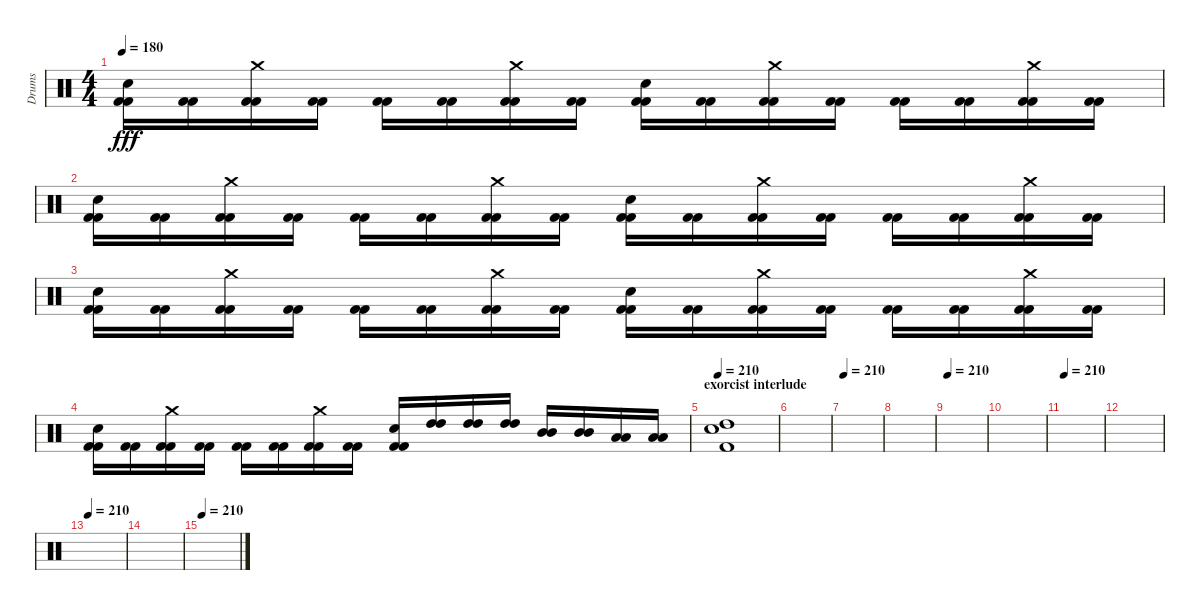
\track ("Drums" "Drums") {instrument percussion}
\staff {score}
\articulation defaults
\ts (4 4)
\tempo 180
\clef neutral
\ks c
("Electric Snare (hit)" "Kick (hit) 2" "Kick (hit) 2").16{dy fff} ("Kick (hit) 2" "Kick (hit) 2").16 ("Crash medium (hit)" "Kick (hit) 2" "Kick (hit) 2").16 ("Kick (hit) 2" "Kick (hit) 2").16 ("Kick (hit) 2" "Kick (hit) 2").16 ("Kick (hit) 2" "Kick (hit) 2").16 ("Crash medium (hit)" "Kick (hit) 2" "Kick (hit) 2").16 ("Kick (hit) 2" "Kick (hit) 2").16 ("Electric Snare (hit)" "Kick (hit) 2" "Kick (hit) 2").16 ("Kick (hit) 2" "Kick (hit) 2").16 ("Crash medium (hit)" "Kick (hit) 2" "Kick (hit) 2").16 ("Kick (hit) 2" "Kick (hit) 2").16 ("Kick (hit) 2" "Kick (hit) 2").16 ("Kick (hit) 2" "Kick (hit) 2").16 ("Crash medium (hit)" "Kick (hit) 2" "Kick (hit) 2").16 ("Kick (hit) 2" "Kick (hit) 2").16 |
("Electric Snare (hit)" "Kick (hit) 2" "Kick (hit) 2").16 ("Kick (hit) 2" "Kick (hit) 2").16 ("Crash medium (hit)" "Kick (hit) 2" "Kick (hit) 2").16 ("Kick (hit) 2" "Kick (hit) 2").16 ("Kick (hit) 2" "Kick (hit) 2").16 ("Kick (hit) 2" "Kick (hit) 2").16 ("Crash medium (hit)" "Kick (hit) 2" "Kick (hit) 2").16 ("Kick (hit) 2" "Kick (hit) 2").16 ("Electric Snare (hit)" "Kick (hit) 2" "Kick (hit) 2").16 ("Kick (hit) 2" "Kick (hit) 2").16 ("Crash medium (hit)" "Kick (hit) 2" "Kick (hit) 2").16 ("Kick (hit) 2" "Kick (hit) 2").16 ("Kick (hit) 2" "Kick (hit) 2").16 ("Kick (hit) 2" "Kick (hit) 2").16 ("Crash medium (hit)" "Kick (hit) 2" "Kick (hit) 2").16 ("Kick (hit) 2" "Kick (hit) 2").16 |
("Electric Snare (hit)" "Kick (hit) 2" "Kick (hit) 2").16 ("Kick (hit) 2" "Kick (hit) 2").16 ("Crash medium (hit)" "Kick (hit) 2" "Kick (hit) 2").16 ("Kick (hit) 2" "Kick (hit) 2").16 ("Kick (hit) 2" "Kick (hit) 2").16 ("Kick (hit) 2" "Kick (hit) 2").16 ("Crash medium (hit)" "Kick (hit) 2" "Kick (hit) 2").16 ("Kick (hit) 2" "Kick (hit) 2").16 ("Electric Snare (hit)" "Kick (hit) 2" "Kick (hit) 2").16 ("Kick (hit) 2" "Kick (hit) 2").16 ("Crash medium (hit)" "Kick (hit) 2" "Kick (hit) 2").16 ("Kick (hit) 2" "Kick (hit) 2").16 ("Kick (hit) 2" "Kick (hit) 2").16 ("Kick (hit) 2" "Kick (hit) 2").16 ("Crash medium (hit)" "Kick (hit) 2" "Kick (hit) 2").16 ("Kick (hit) 2" "Kick (hit) 2").16 |
("Electric Snare (hit)" "Kick (hit) 2" "Kick (hit) 2").16 ("Kick (hit) 2" "Kick (hit) 2").16 ("Crash medium (hit)" "Kick (hit) 2" "Kick (hit) 2").16 ("Kick (hit) 2" "Kick (hit) 2").16 ("Kick (hit) 2" "Kick (hit) 2").16 ("Kick (hit) 2" "Kick (hit) 2").16 ("Crash medium (hit)" "Kick (hit) 2" "Kick (hit) 2").16 ("Kick (hit) 2" "Kick (hit) 2").16 ("Electric Snare (hit)" "Kick (hit) 2" "Kick (hit) 2").16 ("High Tom (hit)" "High Tom (hit)").16 ("High Tom (hit)" "High Tom (hit)").16 ("High Tom (hit)" "High Tom (hit)").16 ("Mid Tom (hit)" "Mid Tom (hit)").16 ("Mid Tom (hit)" "Mid Tom (hit)").16 ("Low Tom (hit)" "Low Tom (hit)").16 ("Low Tom (hit)" "Low Tom (hit)").16 |
\section ("" "exorcist interlude")
\tempo 210
("High Tom (hit)" "Kick (hit) 2" "Electric Snare (hit)").1 |
|
\tempo 210
|
|
\tempo 210
|
|
\tempo 210
|
|
\tempo 210
|
|
\tempo 210
